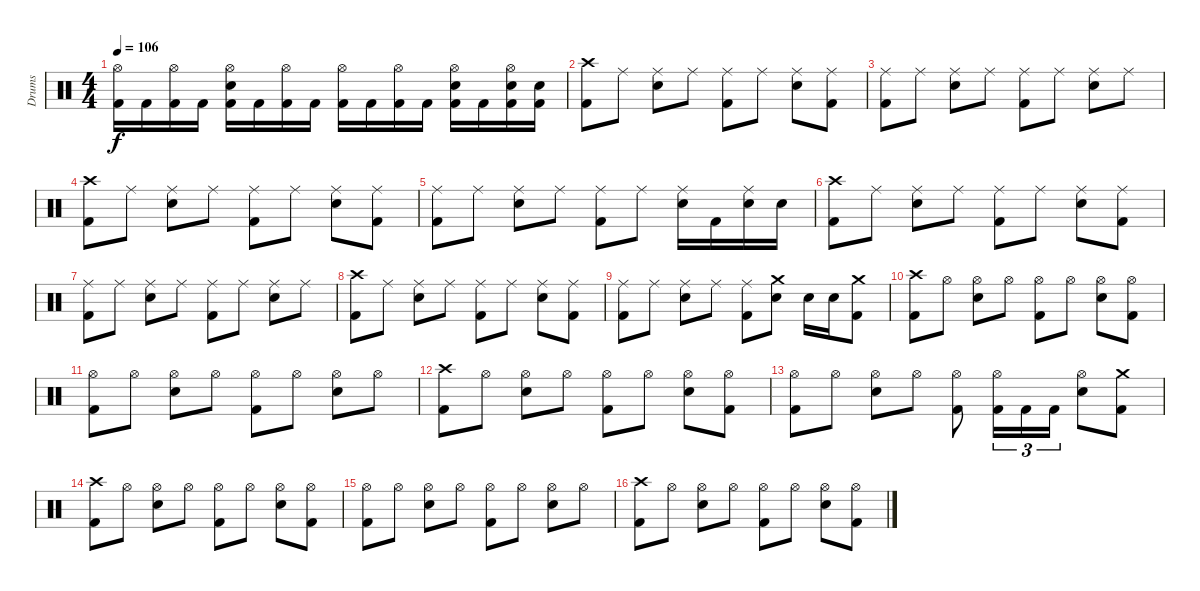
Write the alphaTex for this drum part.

\track ("Drums" "Drums") {instrument percussion}
\staff {score}
\articulation defaults
\ts (4 4)
\tempo 106
\clef neutral
\ks c
("Hi-Hat (open)" "Kick (hit) 2").16{dy f} "Kick (hit) 2".16 ("Hi-Hat (open)" "Kick (hit) 2").16 "Kick (hit) 2".16 ("Hi-Hat (open)" "Electric Snare (hit)" "Kick (hit) 2").16 "Kick (hit) 2".16 ("Hi-Hat (open)" "Kick (hit) 2").16 "Kick (hit) 2".16 ("Hi-Hat (open)" "Kick (hit) 2").16 "Kick (hit) 2".16 ("Hi-Hat (open)" "Kick (hit) 2").16 "Kick (hit) 2".16 ("Hi-Hat (open)" "Electric Snare (hit)" "Kick (hit) 2").16 "Kick (hit) 2".16 ("Hi-Hat (open)" "Electric Snare (hit)" "Kick (hit) 2").16 ("Electric Snare (hit)" "Kick (hit) 2").16 |
("Crash high (hit)" "Kick (hit) 2").8 "Ride (middle)".8 ("Ride (middle)" "Electric Snare (hit)").8 "Ride (middle)".8 ("Ride (middle)" "Kick (hit) 2").8 "Ride (middle)".8 ("Ride (middle)" "Electric Snare (hit)").8 ("Ride (middle)" "Kick (hit) 2").8 |
("Ride (middle)" "Kick (hit) 2").8 "Ride (middle)".8 ("Ride (middle)" "Electric Snare (hit)").8 "Ride (middle)".8 ("Ride (middle)" "Kick (hit) 2").8 "Ride (middle)".8 ("Ride (middle)" "Electric Snare (hit)").8 "Ride (middle)".8 |
("Crash high (hit)" "Kick (hit) 2").8 "Ride (middle)".8 ("Ride (middle)" "Electric Snare (hit)").8 "Ride (middle)".8 ("Ride (middle)" "Kick (hit) 2").8 "Ride (middle)".8 ("Ride (middle)" "Electric Snare (hit)").8 ("Ride (middle)" "Kick (hit) 2").8 |
("Ride (middle)" "Kick (hit) 2").8 "Ride (middle)".8 ("Ride (middle)" "Electric Snare (hit)").8 "Ride (middle)".8 ("Ride (middle)" "Kick (hit) 2").8 "Ride (middle)".8 ("Ride (middle)" "Electric Snare (hit)").16 "Kick (hit) 2".16 ("Ride (middle)" "Electric Snare (hit)").16 "Electric Snare (hit)".16 |
("Crash high (hit)" "Kick (hit) 2").8 "Ride (middle)".8 ("Ride (middle)" "Electric Snare (hit)").8 "Ride (middle)".8 ("Ride (middle)" "Kick (hit) 2").8 "Ride (middle)".8 ("Ride (middle)" "Electric Snare (hit)").8 ("Ride (middle)" "Kick (hit) 2").8 |
("Ride (middle)" "Kick (hit) 2").8 "Ride (middle)".8 ("Ride (middle)" "Electric Snare (hit)").8 "Ride (middle)".8 ("Ride (middle)" "Kick (hit) 2").8 "Ride (middle)".8 ("Ride (middle)" "Electric Snare (hit)").8 "Ride (middle)".8 |
("Crash high (hit)" "Kick (hit) 2").8 "Ride (middle)".8 ("Ride (middle)" "Electric Snare (hit)").8 "Ride (middle)".8 ("Ride (middle)" "Kick (hit) 2").8 "Ride (middle)".8 ("Ride (middle)" "Electric Snare (hit)").8 ("Ride (middle)" "Kick (hit) 2").8 |
("Ride (middle)" "Kick (hit) 2").8 "Ride (middle)".8 ("Ride (middle)" "Electric Snare (hit)").8 "Ride (middle)".8 ("Ride (middle)" "Kick (hit) 2").8 ("Crash medium (hit)" "Electric Snare (hit)").8 "Electric Snare (hit)".16 "Electric Snare (hit)".16 ("Crash medium (hit)" "Kick (hit) 2").8 |
("Crash high (hit)" "Kick (hit) 2").8 "Hi-Hat (open)".8 ("Hi-Hat (open)" "Electric Snare (hit)").8 "Hi-Hat (open)".8 ("Hi-Hat (open)" "Kick (hit) 2").8 "Hi-Hat (open)".8 ("Hi-Hat (open)" "Electric Snare (hit)").8 ("Hi-Hat (open)" "Kick (hit) 2").8 |
("Hi-Hat (open)" "Kick (hit) 2").8 "Hi-Hat (open)".8 ("Hi-Hat (open)" "Electric Snare (hit)").8 "Hi-Hat (open)".8 ("Hi-Hat (open)" "Kick (hit) 2").8 "Hi-Hat (open)".8 ("Hi-Hat (open)" "Electric Snare (hit)").8 "Hi-Hat (open)".8 |
("Crash high (hit)" "Kick (hit) 2").8 "Hi-Hat (open)".8 ("Hi-Hat (open)" "Electric Snare (hit)").8 "Hi-Hat (open)".8 ("Hi-Hat (open)" "Kick (hit) 2").8 "Hi-Hat (open)".8 ("Hi-Hat (open)" "Electric Snare (hit)").8 ("Hi-Hat (open)" "Kick (hit) 2").8 |
("Hi-Hat (open)" "Kick (hit) 2").8 "Hi-Hat (open)".8 ("Hi-Hat (open)" "Electric Snare (hit)").8 "Hi-Hat (open)".8 ("Hi-Hat (open)" "Kick (hit) 2").8 ("Hi-Hat (open)" "Kick (hit) 2").16{tu (3 2)} "Kick (hit) 2".16{tu (3 2)} "Kick (hit) 2".16{tu (3 2)} ("Hi-Hat (open)" "Electric Snare (hit)").8 ("Crash medium (hit)" "Kick (hit) 2").8 |
("Crash high (hit)" "Kick (hit) 2").8 "Hi-Hat (open)".8 ("Hi-Hat (open)" "Electric Snare (hit)").8 "Hi-Hat (open)".8 ("Hi-Hat (open)" "Kick (hit) 2").8 "Hi-Hat (open)".8 ("Hi-Hat (open)" "Electric Snare (hit)").8 ("Hi-Hat (open)" "Kick (hit) 2").8 |
("Hi-Hat (open)" "Kick (hit) 2").8 "Hi-Hat (open)".8 ("Hi-Hat (open)" "Electric Snare (hit)").8 "Hi-Hat (open)".8 ("Hi-Hat (open)" "Kick (hit) 2").8 "Hi-Hat (open)".8 ("Hi-Hat (open)" "Electric Snare (hit)").8 "Hi-Hat (open)".8 |
("Crash high (hit)" "Kick (hit) 2").8 "Hi-Hat (open)".8 ("Hi-Hat (open)" "Electric Snare (hit)").8 "Hi-Hat (open)".8 ("Hi-Hat (open)" "Kick (hit) 2").8 "Hi-Hat (open)".8 ("Hi-Hat (open)" "Electric Snare (hit)").8 ("Hi-Hat (open)" "Kick (hit) 2").8
